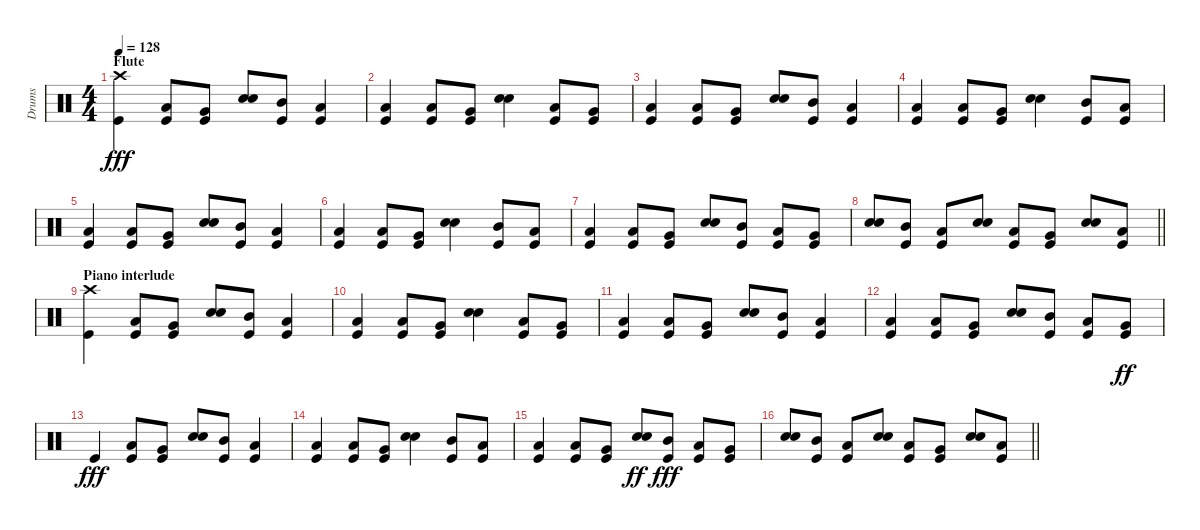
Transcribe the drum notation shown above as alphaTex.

\track ("Drums" "Drums") {instrument percussion}
\staff {score}
\articulation defaults
\ts (4 4)
\section ("" "Flute")
\tempo 128
\clef neutral
\ks c
("Crash high (hit)" "Kick (hit)").4{dy fff} ("Low Tom (hit)" "Kick (hit)").8 ("Very Low Tom (hit)" "Kick (hit)").8 ("Snare (hit) 2" "Electric Snare (hit)").8 ("Mid Tom (hit)" "Kick (hit)").8 ("Low Tom (hit)" "Kick (hit)").4 |
("Low Tom (hit)" "Kick (hit)").4 ("Low Tom (hit)" "Kick (hit)").8 ("Very Low Tom (hit)" "Kick (hit)").8 ("Snare (hit) 2" "Electric Snare (hit)").4 ("Low Tom (hit)" "Kick (hit)").8 ("Very Low Tom (hit)" "Kick (hit)").8 |
("Low Tom (hit)" "Kick (hit)").4 ("Low Tom (hit)" "Kick (hit)").8 ("Very Low Tom (hit)" "Kick (hit)").8 ("Snare (hit) 2" "Electric Snare (hit)").8 ("Mid Tom (hit)" "Kick (hit)").8 ("Low Tom (hit)" "Kick (hit)").4 |
("Low Tom (hit)" "Kick (hit)").4 ("Low Tom (hit)" "Kick (hit)").8 ("Very Low Tom (hit)" "Kick (hit)").8 ("Snare (hit) 2" "Electric Snare (hit)").4 ("Mid Tom (hit)" "Kick (hit)").8 ("Low Tom (hit)" "Kick (hit)").8 |
("Low Tom (hit)" "Kick (hit)").4 ("Low Tom (hit)" "Kick (hit)").8 ("Very Low Tom (hit)" "Kick (hit)").8 ("Snare (hit) 2" "Electric Snare (hit)").8 ("Mid Tom (hit)" "Kick (hit)").8 ("Low Tom (hit)" "Kick (hit)").4 |
("Low Tom (hit)" "Kick (hit)").4 ("Low Tom (hit)" "Kick (hit)").8 ("Very Low Tom (hit)" "Kick (hit)").8 ("Snare (hit) 2" "Electric Snare (hit)").4 ("Mid Tom (hit)" "Kick (hit)").8 ("Low Tom (hit)" "Kick (hit)").8 |
("Low Tom (hit)" "Kick (hit)").4 ("Low Tom (hit)" "Kick (hit)").8 ("Very Low Tom (hit)" "Kick (hit)").8 ("Snare (hit) 2" "Electric Snare (hit)").8 ("Mid Tom (hit)" "Kick (hit)").8 ("Low Tom (hit)" "Kick (hit)").8 ("Very Low Tom (hit)" "Kick (hit)").8 |
\barLineRight lightlight
("Snare (hit) 2" "Electric Snare (hit)").8 ("Mid Tom (hit)" "Kick (hit)").8 ("Low Tom (hit)" "Kick (hit)").8 ("Snare (hit) 2" "Electric Snare (hit)").8 ("Low Tom (hit)" "Kick (hit)").8 ("Very Low Tom (hit)" "Kick (hit)").8 ("Snare (hit) 2" "Electric Snare (hit)").8 ("Low Tom (hit)" "Kick (hit)").8 |
\section ("" "Piano interlude")
("Crash high (hit)" "Kick (hit)").4 ("Low Tom (hit)" "Kick (hit)").8 ("Very Low Tom (hit)" "Kick (hit)").8 ("Snare (hit) 2" "Electric Snare (hit)").8 ("Mid Tom (hit)" "Kick (hit)").8 ("Low Tom (hit)" "Kick (hit)").4 |
("Low Tom (hit)" "Kick (hit)").4 ("Low Tom (hit)" "Kick (hit)").8 ("Very Low Tom (hit)" "Kick (hit)").8 ("Snare (hit) 2" "Electric Snare (hit)").4 ("Low Tom (hit)" "Kick (hit)").8 ("Very Low Tom (hit)" "Kick (hit)").8 |
("Low Tom (hit)" "Kick (hit)").4 ("Low Tom (hit)" "Kick (hit)").8 ("Very Low Tom (hit)" "Kick (hit)").8 ("Snare (hit) 2" "Electric Snare (hit)").8 ("Mid Tom (hit)" "Kick (hit)").8 ("Low Tom (hit)" "Kick (hit)").4 |
("Low Tom (hit)" "Kick (hit)").4 ("Low Tom (hit)" "Kick (hit)").8 ("Very Low Tom (hit)" "Kick (hit)").8 ("Snare (hit) 2" "Electric Snare (hit)").8 ("Mid Tom (hit)" "Kick (hit)").8 ("Low Tom (hit)" "Kick (hit)").8 ("Very Low Tom (hit)" "Kick (hit)").8{dy ff} |
"Kick (hit)".4{dy fff} ("Low Tom (hit)" "Kick (hit)").8 ("Very Low Tom (hit)" "Kick (hit)").8 ("Snare (hit) 2" "Electric Snare (hit)").8 ("Mid Tom (hit)" "Kick (hit)").8 ("Low Tom (hit)" "Kick (hit)").4 |
("Low Tom (hit)" "Kick (hit)").4 ("Low Tom (hit)" "Kick (hit)").8 ("Very Low Tom (hit)" "Kick (hit)").8 ("Snare (hit) 2" "Electric Snare (hit)").4 ("Mid Tom (hit)" "Kick (hit)").8 ("Low Tom (hit)" "Kick (hit)").8 |
("Low Tom (hit)" "Kick (hit)").4 ("Low Tom (hit)" "Kick (hit)").8 ("Very Low Tom (hit)" "Kick (hit)").8 ("Snare (hit) 2" "Electric Snare (hit)").8{dy ff} ("Mid Tom (hit)" "Kick (hit)").8{dy fff} ("Low Tom (hit)" "Kick (hit)").8 ("Very Low Tom (hit)" "Kick (hit)").8 |
\barLineRight lightlight
("Snare (hit) 2" "Electric Snare (hit)").8 ("Mid Tom (hit)" "Kick (hit)").8 ("Low Tom (hit)" "Kick (hit)").8 ("Snare (hit) 2" "Electric Snare (hit)").8 ("Low Tom (hit)" "Kick (hit)").8 ("Very Low Tom (hit)" "Kick (hit)").8 ("Snare (hit) 2" "Electric Snare (hit)").8 ("Low Tom (hit)" "Kick (hit)").8
